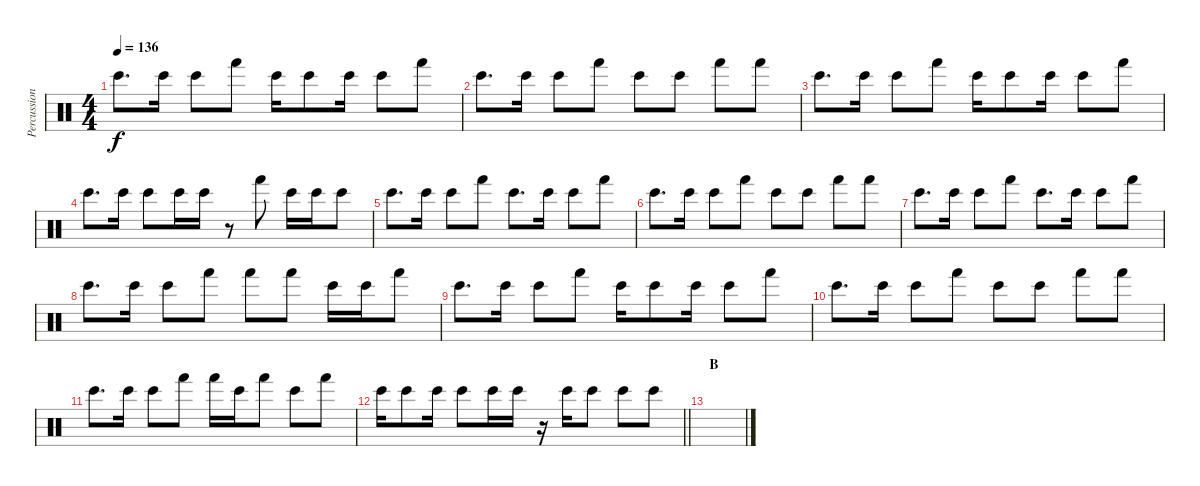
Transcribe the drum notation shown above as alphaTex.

\track ("Percussion" "Percussion") {instrument percussion}
\staff {score}
\articulation defaults
\ts (4 4)
\tempo 136
\clef neutral
\ks c "Bongo High (hit)".8{d dy f} "Bongo High (hit)".16 "Bongo High (hit)".8 "Hand (hit)".8 "Bongo High (hit)".16 "Bongo High (hit)".8 "Bongo High (hit)".16 "Bongo High (hit)".8 "Hand (hit)".8
|
"Bongo High (hit)".8{d} "Bongo High (hit)".16 "Bongo High (hit)".8 "Hand (hit)".8 "Bongo High (hit)".8 "Bongo High (hit)".8 "Hand (hit)".8 "Hand (hit)".8 |
"Bongo High (hit)".8{d} "Bongo High (hit)".16 "Bongo High (hit)".8 "Hand (hit)".8 "Bongo High (hit)".16 "Bongo High (hit)".8 "Bongo High (hit)".16 "Bongo High (hit)".8 "Hand (hit)".8 |
"Bongo High (hit)".8{d} "Bongo High (hit)".16 "Bongo High (hit)".8 "Bongo High (hit)".16 "Bongo High (hit)".16 r.8 "Hand (hit)".8 "Bongo High (hit)".16 "Bongo High (hit)".16 "Bongo High (hit)".8 |
"Bongo High (hit)".8{d} "Bongo High (hit)".16 "Bongo High (hit)".8 "Hand (hit)".8 "Bongo High (hit)".8{d} "Bongo High (hit)".16 "Bongo High (hit)".8 "Hand (hit)".8 |
"Bongo High (hit)".8{d} "Bongo High (hit)".16 "Bongo High (hit)".8 "Hand (hit)".8 "Bongo High (hit)".8 "Bongo High (hit)".8 "Hand (hit)".8 "Hand (hit)".8 |
"Bongo High (hit)".8{d} "Bongo High (hit)".16 "Bongo High (hit)".8 "Hand (hit)".8 "Bongo High (hit)".8{d} "Bongo High (hit)".16 "Bongo High (hit)".8 "Hand (hit)".8 |
"Bongo High (hit)".8{d} "Bongo High (hit)".16 "Bongo High (hit)".8 "Hand (hit)".8 "Hand (hit)".8 "Hand (hit)".8 "Bongo High (hit)".16 "Bongo High (hit)".16 "Hand (hit)".8 |
"Bongo High (hit)".8{d} "Bongo High (hit)".16 "Bongo High (hit)".8 "Hand (hit)".8 "Bongo High (hit)".16 "Bongo High (hit)".8 "Bongo High (hit)".16 "Bongo High (hit)".8 "Hand (hit)".8 |
"Bongo High (hit)".8{d} "Bongo High (hit)".16 "Bongo High (hit)".8 "Hand (hit)".8 "Bongo High (hit)".8 "Bongo High (hit)".8 "Hand (hit)".8 "Hand (hit)".8 |
"Bongo High (hit)".8{d} "Bongo High (hit)".16 "Bongo High (hit)".8 "Hand (hit)".8 "Hand (hit)".16 "Bongo High (hit)".16 "Hand (hit)".8 "Bongo High (hit)".8 "Hand (hit)".8 |
\barLineRight lightlight "Bongo High (hit)".16 "Bongo High (hit)".8 "Bongo High (hit)".16 "Bongo High (hit)".8 "Bongo High (hit)".16 "Bongo High (hit)".16
r.16 "Bongo High (hit)".16 "Bongo High (hit)".8 "Bongo High (hit)".8 "Bongo High (hit)".8 |
\section ("" "B")
